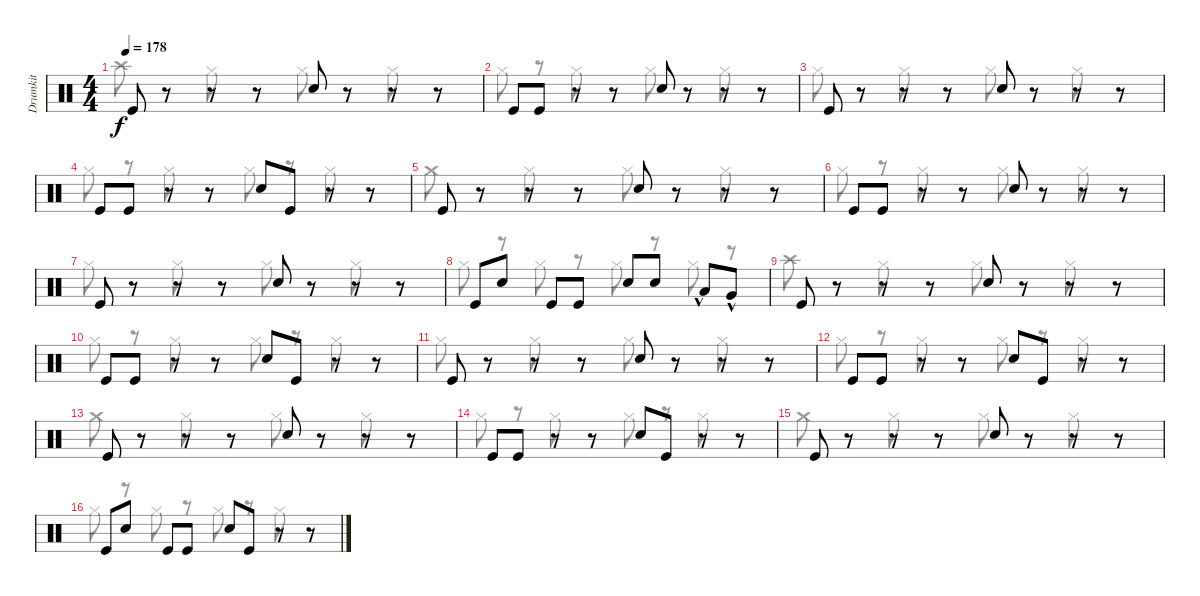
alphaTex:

\track ("Drumkit" "Drumkit") {instrument percussion}
\staff {score}
\articulation defaults
\voice
\ts (4 4)
\section ("" "")
\tempo 178
\clef neutral
\ks c "Kick (hit)".8{dy f}
r.8 r.8 r.8 "Snare (hit) 2".8 r.8 r.8 r.8 |
"Kick (hit)".8 "Kick (hit)".8 r.8 r.8 "Snare (hit) 2".8 r.8 r.8 r.8 |
"Kick (hit)".8 r.8 r.8 r.8 "Snare (hit) 2".8 r.8 r.8 r.8 |
"Kick (hit)".8 "Kick (hit)".8 r.8 r.8 "Snare (hit) 2".8 "Kick (hit)".8 r.8 r.8 |
"Kick (hit)".8 r.8 r.8 r.8 "Snare (hit) 2".8 r.8 r.8 r.8 |
"Kick (hit)".8 "Kick (hit)".8 r.8 r.8 "Snare (hit) 2".8 r.8 r.8 r.8 |
"Kick (hit)".8 r.8 r.8 r.8 "Snare (hit) 2".8 r.8 r.8 r.8 |
"Kick (hit)".8 "Snare (hit) 2".8 "Kick (hit)".8 "Kick (hit)".8 "Snare (hit) 2".8 "Snare (hit) 2".8 "Low Tom (hit)"{hac}.8 "Very Low Tom (hit)"{hac}.8 |
"Kick (hit)".8 r.8 r.8 r.8 "Snare (hit) 2".8 r.8 r.8 r.8 |
"Kick (hit)".8 "Kick (hit)".8 r.8 r.8 "Snare (hit) 2".8 "Kick (hit)".8 r.8 r.8 |
"Kick (hit)".8 r.8 r.8 r.8 "Snare (hit) 2".8 r.8 r.8 r.8 |
"Kick (hit)".8 "Kick (hit)".8 r.8 r.8 "Snare (hit) 2".8 "Kick (hit)".8 r.8 r.8 |
"Kick (hit)".8 r.8 r.8 r.8 "Snare (hit) 2".8 r.8 r.8 r.8 |
"Kick (hit)".8 "Kick (hit)".8 r.8 r.8 "Snare (hit) 2".8 "Kick (hit)".8 r.8 r.8 |
"Kick (hit)".8 r.8 r.8 r.8 "Snare (hit) 2".8 r.8 r.8 r.8 |
"Kick (hit)".8 "Snare (hit) 2".8 "Kick (hit)".8 "Kick (hit)".8 "Snare (hit) 2".8 "Kick (hit)".8 r.8 r.8
\voice
\clef neutral
\ottava regular
\simile none
\ks c "Crash high (hit)".8{dy f}
r.8 "Hi-Hat (closed)".8 r.8 "Hi-Hat (closed)".8 r.8 "Hi-Hat (closed)".8 r.8 |
"Hi-Hat (closed)".8 r.8 "Hi-Hat (closed)".8 r.8 "Hi-Hat (closed)".8 r.8 "Hi-Hat (closed)".8 r.8 |
"Hi-Hat (closed)".8 r.8 "Hi-Hat (closed)".8 r.8 "Hi-Hat (closed)".8 r.8 "Hi-Hat (closed)".8 r.8 |
"Hi-Hat (closed)".8 r.8 "Hi-Hat (closed)".8 r.8 "Hi-Hat (closed)".8 r.8 "Hi-Hat (closed)".8 r.8 |
"Crash medium (hit)".8 r.8 "Hi-Hat (closed)".8 r.8 "Hi-Hat (closed)".8 r.8 "Hi-Hat (closed)".8 r.8 |
"Hi-Hat (closed)".8 r.8 "Hi-Hat (closed)".8 r.8 "Hi-Hat (closed)".8 r.8 "Hi-Hat (closed)".8 r.8 |
"Hi-Hat (closed)".8 r.8 "Hi-Hat (closed)".8 r.8 "Hi-Hat (closed)".8 r.8 "Hi-Hat (closed)".8 r.8 |
"Hi-Hat (closed)".8 r.8 "Hi-Hat (closed)".8 r.8 "Hi-Hat (closed)".8 r.8 "Hi-Hat (closed)".8 r.8 |
"Crash high (hit)".8 r.8 "Hi-Hat (closed)".8 r.8 "Hi-Hat (closed)".8 r.8 "Hi-Hat (closed)".8 r.8 |
"Hi-Hat (closed)".8 r.8 "Hi-Hat (closed)".8 r.8 "Hi-Hat (closed)".8 r.8 "Hi-Hat (closed)".8 r.8 |
"Hi-Hat (closed)".8 r.8 "Hi-Hat (closed)".8 r.8 "Hi-Hat (closed)".8 r.8 "Hi-Hat (closed)".8 r.8 |
"Hi-Hat (closed)".8 r.8 "Hi-Hat (closed)".8 r.8 "Hi-Hat (closed)".8 r.8 "Hi-Hat (closed)".8 r.8 |
"Crash medium (hit)".8 r.8 "Hi-Hat (closed)".8 r.8 "Hi-Hat (closed)".8 r.8 "Hi-Hat (closed)".8 r.8 |
"Hi-Hat (closed)".8 r.8 "Hi-Hat (closed)".8 r.8 "Hi-Hat (closed)".8 r.8 "Hi-Hat (closed)".8 r.8 |
"Crash medium (hit)".8 r.8 "Hi-Hat (closed)".8 r.8 "Hi-Hat (closed)".8 r.8 "Hi-Hat (closed)".8 r.8 |
"Hi-Hat (closed)".8 r.8 "Hi-Hat (closed)".8 r.8 "Hi-Hat (closed)".8 r.8 "Hi-Hat (closed)".8 r.8
